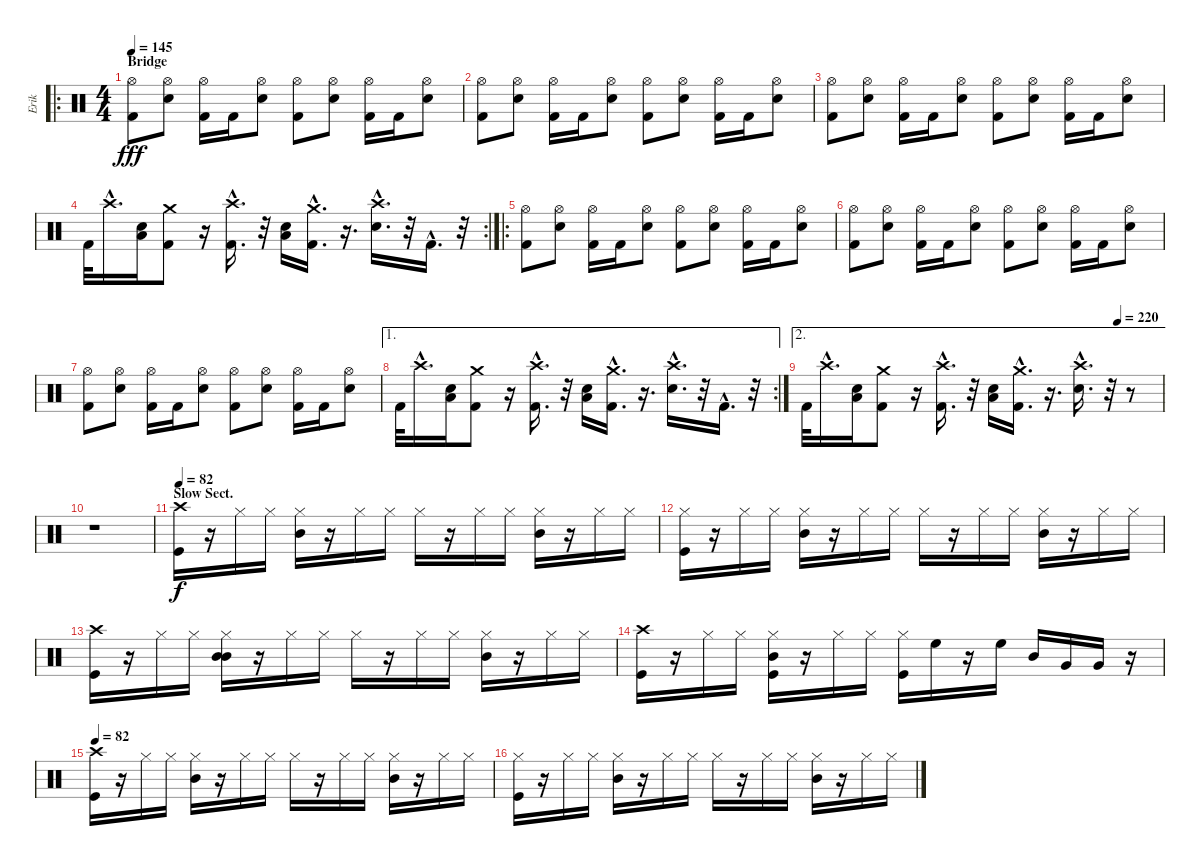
\track ("Erik" "Erik") {instrument percussion}
\staff {score}
\articulation defaults
\ro
\ts (4 4)
\section ("" "Bridge")
\tempo 145
\clef neutral
\ks c
("Kick (hit) 2" "Hi-Hat (open)").8{dy fff} ("Electric Snare (hit)" "Hi-Hat (open)").8 ("Kick (hit) 2" "Hi-Hat (open)").16 "Kick (hit) 2".16 ("Electric Snare (hit)" "Hi-Hat (open)").8 ("Kick (hit) 2" "Hi-Hat (open)").8 ("Electric Snare (hit)" "Hi-Hat (open)").8 ("Kick (hit) 2" "Hi-Hat (open)").16 "Kick (hit) 2".16 ("Electric Snare (hit)" "Hi-Hat (open)").8 |
("Kick (hit) 2" "Hi-Hat (open)").8 ("Electric Snare (hit)" "Hi-Hat (open)").8 ("Kick (hit) 2" "Hi-Hat (open)").16 "Kick (hit) 2".16 ("Electric Snare (hit)" "Hi-Hat (open)").8 ("Kick (hit) 2" "Hi-Hat (open)").8 ("Electric Snare (hit)" "Hi-Hat (open)").8 ("Kick (hit) 2" "Hi-Hat (open)").16 "Kick (hit) 2".16 ("Electric Snare (hit)" "Hi-Hat (open)").8 |
("Kick (hit) 2" "Hi-Hat (open)").8 ("Electric Snare (hit)" "Hi-Hat (open)").8 ("Kick (hit) 2" "Hi-Hat (open)").16 "Kick (hit) 2".16 ("Electric Snare (hit)" "Hi-Hat (open)").8 ("Kick (hit) 2" "Hi-Hat (open)").8 ("Electric Snare (hit)" "Hi-Hat (open)").8 ("Kick (hit) 2" "Hi-Hat (open)").16 "Kick (hit) 2".16 ("Electric Snare (hit)" "Hi-Hat (open)").8 |
\rc 2 "Kick (hit) 2".32 "Crash high (hit)"{hac}.16{d}
("Low Tom (hit)" "Electric Snare (hit)").16 ("Kick (hit) 2" "Crash medium (hit)").8 r.16 ("Kick (hit) 2"{hac} "Crash high (hit)"{hac}).16{d} r.32 ("Low Tom (hit)" "Electric Snare (hit)").16 ("Crash medium (hit)"{hac} "Kick (hit) 2"{hac}).16{d} r.16{d} ("Electric Snare (hit)"{hac} "Crash high (hit)"{hac}).16{d} r.32 "Kick (hit) 2"{hac}.16{d} r.32 |
\ro
("Kick (hit) 2" "Hi-Hat (open)").8 ("Electric Snare (hit)" "Hi-Hat (open)").8 ("Kick (hit) 2" "Hi-Hat (open)").16 "Kick (hit) 2".16 ("Electric Snare (hit)" "Hi-Hat (open)").8 ("Kick (hit) 2" "Hi-Hat (open)").8 ("Electric Snare (hit)" "Hi-Hat (open)").8 ("Kick (hit) 2" "Hi-Hat (open)").16 "Kick (hit) 2".16 ("Electric Snare (hit)" "Hi-Hat (open)").8 |
("Kick (hit) 2" "Hi-Hat (open)").8 ("Electric Snare (hit)" "Hi-Hat (open)").8 ("Kick (hit) 2" "Hi-Hat (open)").16 "Kick (hit) 2".16 ("Electric Snare (hit)" "Hi-Hat (open)").8 ("Kick (hit) 2" "Hi-Hat (open)").8 ("Electric Snare (hit)" "Hi-Hat (open)").8 ("Kick (hit) 2" "Hi-Hat (open)").16 "Kick (hit) 2".16 ("Electric Snare (hit)" "Hi-Hat (open)").8 |
("Kick (hit) 2" "Hi-Hat (open)").8 ("Electric Snare (hit)" "Hi-Hat (open)").8 ("Kick (hit) 2" "Hi-Hat (open)").16 "Kick (hit) 2".16 ("Electric Snare (hit)" "Hi-Hat (open)").8 ("Kick (hit) 2" "Hi-Hat (open)").8 ("Electric Snare (hit)" "Hi-Hat (open)").8 ("Kick (hit) 2" "Hi-Hat (open)").16 "Kick (hit) 2".16 ("Electric Snare (hit)" "Hi-Hat (open)").8 |
\ae 1
\rc 2 "Kick (hit) 2".32 "Crash high (hit)"{hac}.16{d}
("Low Tom (hit)" "Electric Snare (hit)").16 ("Kick (hit) 2" "Crash medium (hit)").8 r.16 ("Kick (hit) 2"{hac} "Crash high (hit)"{hac}).16{d} r.32 ("Low Tom (hit)" "Electric Snare (hit)").16 ("Crash medium (hit)"{hac} "Kick (hit) 2"{hac}).16{d} r.16{d} ("Electric Snare (hit)"{hac} "Crash high (hit)"{hac}).16{d} r.32 "Kick (hit) 2"{hac}.16{d} r.32 |
\ae 2
\tempo (220 0.875)
"Kick (hit) 2".32 "Crash high (hit)"{hac}.16{d} ("Low Tom (hit)" "Electric Snare (hit)").16 ("Kick (hit) 2" "Crash medium (hit)").8 r.16 ("Kick (hit) 2"{hac} "Crash high (hit)"{hac}).16{d} r.32 ("Low Tom (hit)" "Electric Snare (hit)").16 ("Crash medium (hit)"{hac} "Kick (hit) 2"{hac}).16{d} r.16{d} ("Electric Snare (hit)"{hac} "Crash high (hit)"{hac}).16{d} r.32 r.8 |
r.1 |
\section ("" "Slow Sect.")
\tempo 82
("Kick (hit)" "Crash high (hit)").16{dy f} r.16 "Hi-Hat (closed)".16 "Hi-Hat (closed)".16 ("Hi-Hat (closed)" "Mid Tom (hit)").16 r.16 "Hi-Hat (closed)".16 "Hi-Hat (closed)".16 "Hi-Hat (closed)".16 r.16 "Hi-Hat (closed)".16 "Hi-Hat (closed)".16 ("Hi-Hat (closed)" "Mid Tom (hit)").16 r.16 "Hi-Hat (closed)".16 "Hi-Hat (closed)".16 |
("Kick (hit)" "Hi-Hat (closed)").16 r.16 "Hi-Hat (closed)".16 "Hi-Hat (closed)".16 ("Hi-Hat (closed)" "Mid Tom (hit)").16 r.16 "Hi-Hat (closed)".16 "Hi-Hat (closed)".16 "Hi-Hat (closed)".16 r.16 "Hi-Hat (closed)".16 "Hi-Hat (closed)".16 ("Hi-Hat (closed)" "Mid Tom (hit)").16 r.16 "Hi-Hat (closed)".16 "Hi-Hat (closed)".16 |
("Kick (hit)" "Crash high (hit)").16 r.16 "Hi-Hat (closed)".16 "Hi-Hat (closed)".16 ("Hi-Hat (closed)" "Mid Tom (hit)" "Mid Tom (hit)").16 r.16 "Hi-Hat (closed)".16 "Hi-Hat (closed)".16 "Hi-Hat (closed)".16 r.16 "Hi-Hat (closed)".16 "Hi-Hat (closed)".16 ("Hi-Hat (closed)" "Mid Tom (hit)").16 r.16 "Hi-Hat (closed)".16 "Hi-Hat (closed)".16 |
("Kick (hit)" "Crash high (hit)").16 r.16 "Hi-Hat (closed)".16 "Hi-Hat (closed)".16 ("Hi-Hat (closed)" "Mid Tom (hit)" "Kick (hit)").16 r.16 "Hi-Hat (closed)".16 "Hi-Hat (closed)".16 ("Hi-Hat (closed)" "Kick (hit)").16 "High Floor Tom (hit)".16 r.16 "High Floor Tom (hit)".16 "Mid Tom (hit)".16 "Very Low Tom (hit)".16 "Very Low Tom (hit)".16 r.16 |
\tempo 82
("Kick (hit)" "Crash high (hit)").16 r.16 "Hi-Hat (closed)".16 "Hi-Hat (closed)".16 ("Hi-Hat (closed)" "Mid Tom (hit)").16 r.16 "Hi-Hat (closed)".16 "Hi-Hat (closed)".16 "Hi-Hat (closed)".16 r.16 "Hi-Hat (closed)".16 "Hi-Hat (closed)".16 ("Hi-Hat (closed)" "Mid Tom (hit)").16 r.16 "Hi-Hat (closed)".16 "Hi-Hat (closed)".16 |
("Kick (hit)" "Hi-Hat (closed)").16 r.16 "Hi-Hat (closed)".16 "Hi-Hat (closed)".16 ("Hi-Hat (closed)" "Mid Tom (hit)").16 r.16 "Hi-Hat (closed)".16 "Hi-Hat (closed)".16 "Hi-Hat (closed)".16 r.16 "Hi-Hat (closed)".16 "Hi-Hat (closed)".16 ("Hi-Hat (closed)" "Mid Tom (hit)").16 r.16 "Hi-Hat (closed)".16 "Hi-Hat (closed)".16
